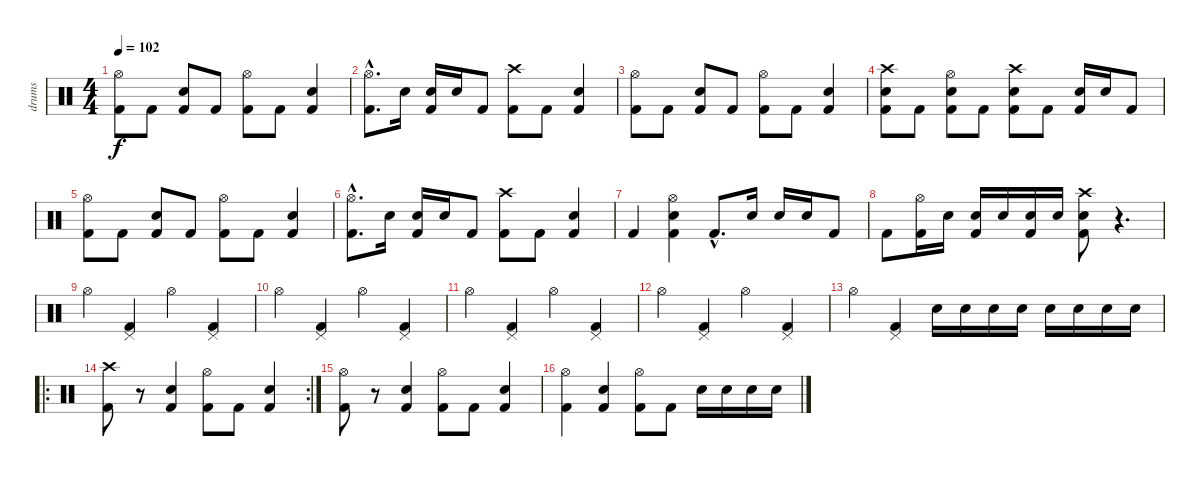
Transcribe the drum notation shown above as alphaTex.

\track ("drums" "drums") {instrument percussion}
\staff {score}
\articulation defaults
\ts (4 4)
\tempo 102
\clef neutral
\ks c
("Hi-Hat (open)" "Kick (hit) 2").8{dy f} "Kick (hit) 2".8 ("Electric Snare (hit)" "Kick (hit) 2").8 "Kick (hit) 2".8 ("Hi-Hat (open)" "Kick (hit) 2").8 "Kick (hit) 2".8 ("Electric Snare (hit)" "Kick (hit) 2").4 |
("Hi-Hat (open)"{hac} "Kick (hit) 2"{hac}).8{d} "Electric Snare (hit)".16 ("Electric Snare (hit)" "Kick (hit) 2").16 "Electric Snare (hit)".16 "Kick (hit) 2".8 ("Crash high (hit)" "Kick (hit) 2").8 "Kick (hit) 2".8 ("Electric Snare (hit)" "Kick (hit) 2").4 |
("Hi-Hat (open)" "Kick (hit) 2").8 "Kick (hit) 2".8 ("Electric Snare (hit)" "Kick (hit) 2").8 "Kick (hit) 2".8 ("Hi-Hat (open)" "Kick (hit) 2").8 "Kick (hit) 2".8 ("Electric Snare (hit)" "Kick (hit) 2").4 |
("Crash high (hit)" "Electric Snare (hit)" "Kick (hit) 2").8 "Kick (hit) 2".8 ("Hi-Hat (open)" "Electric Snare (hit)" "Kick (hit) 2").8 "Kick (hit) 2".8 ("Crash high (hit)" "Electric Snare (hit)" "Kick (hit) 2").8 "Kick (hit) 2".8 ("Electric Snare (hit)" "Kick (hit) 2").16 "Electric Snare (hit)".16 "Kick (hit) 2".8 |
("Hi-Hat (open)" "Kick (hit) 2").8 "Kick (hit) 2".8 ("Electric Snare (hit)" "Kick (hit) 2").8 "Kick (hit) 2".8 ("Hi-Hat (open)" "Kick (hit) 2").8 "Kick (hit) 2".8 ("Electric Snare (hit)" "Kick (hit) 2").4 |
("Hi-Hat (open)"{hac} "Kick (hit) 2"{hac}).8{d} "Electric Snare (hit)".16 ("Electric Snare (hit)" "Kick (hit) 2").16 "Electric Snare (hit)".16 "Kick (hit) 2".8 ("Crash high (hit)" "Kick (hit) 2").8 "Kick (hit) 2".8 ("Electric Snare (hit)" "Kick (hit) 2").4 |
"Kick (hit) 2".4 ("Hi-Hat (open)" "Electric Snare (hit)" "Kick (hit) 2").4 "Kick (hit) 2"{hac}.8{d} "Electric Snare (hit)".16 "Electric Snare (hit)".16 "Electric Snare (hit)".16 "Kick (hit) 2".8 |
"Kick (hit) 2".8 ("Hi-Hat (open)" "Kick (hit) 2").16 "Electric Snare (hit)".16 ("Electric Snare (hit)" "Kick (hit) 2").16 "Electric Snare (hit)".16 ("Electric Snare (hit)" "Kick (hit) 2").16 "Electric Snare (hit)".16 ("Crash high (hit)" "Electric Snare (hit)" "Kick (hit) 2").8 r.4{d} |
"Hi-Hat (open)".4 ("Pedal Hi-Hat (hit)" "Kick (hit) 2").4 "Hi-Hat (open)".4 ("Pedal Hi-Hat (hit)" "Kick (hit) 2").4 |
"Hi-Hat (open)".4 ("Pedal Hi-Hat (hit)" "Kick (hit) 2").4 "Hi-Hat (open)".4 ("Pedal Hi-Hat (hit)" "Kick (hit) 2").4 |
"Hi-Hat (open)".4 ("Pedal Hi-Hat (hit)" "Kick (hit) 2").4 "Hi-Hat (open)".4 ("Pedal Hi-Hat (hit)" "Kick (hit) 2").4 |
"Hi-Hat (open)".4 ("Pedal Hi-Hat (hit)" "Kick (hit) 2").4 "Hi-Hat (open)".4 ("Pedal Hi-Hat (hit)" "Kick (hit) 2").4 |
"Hi-Hat (open)".4 ("Pedal Hi-Hat (hit)" "Kick (hit) 2").4 "Snare (hit) 2".16 "Snare (hit) 2".16 "Snare (hit) 2".16 "Snare (hit) 2".16 "Snare (hit) 2".16 "Snare (hit) 2".16 "Snare (hit) 2".16 "Snare (hit) 2".16 |
\ro
\rc 2
("Crash high (hit)" "Kick (hit) 2").8 r.8 ("Electric Snare (hit)" "Kick (hit) 2").4 ("Hi-Hat (open)" "Kick (hit) 2").8 "Kick (hit) 2".8 ("Electric Snare (hit)" "Kick (hit) 2").4 |
("Hi-Hat (open)" "Kick (hit) 2").8 r.8 ("Electric Snare (hit)" "Kick (hit) 2").4 ("Hi-Hat (open)" "Kick (hit) 2").8 "Kick (hit) 2".8 ("Electric Snare (hit)" "Kick (hit) 2").4 |
("Hi-Hat (open)" "Kick (hit) 2").4 ("Electric Snare (hit)" "Kick (hit) 2").4 ("Hi-Hat (open)" "Kick (hit) 2").8 "Kick (hit) 2".8 "Electric Snare (hit)".16 "Electric Snare (hit)".16 "Snare (hit) 2".16 "Snare (hit) 2".16
